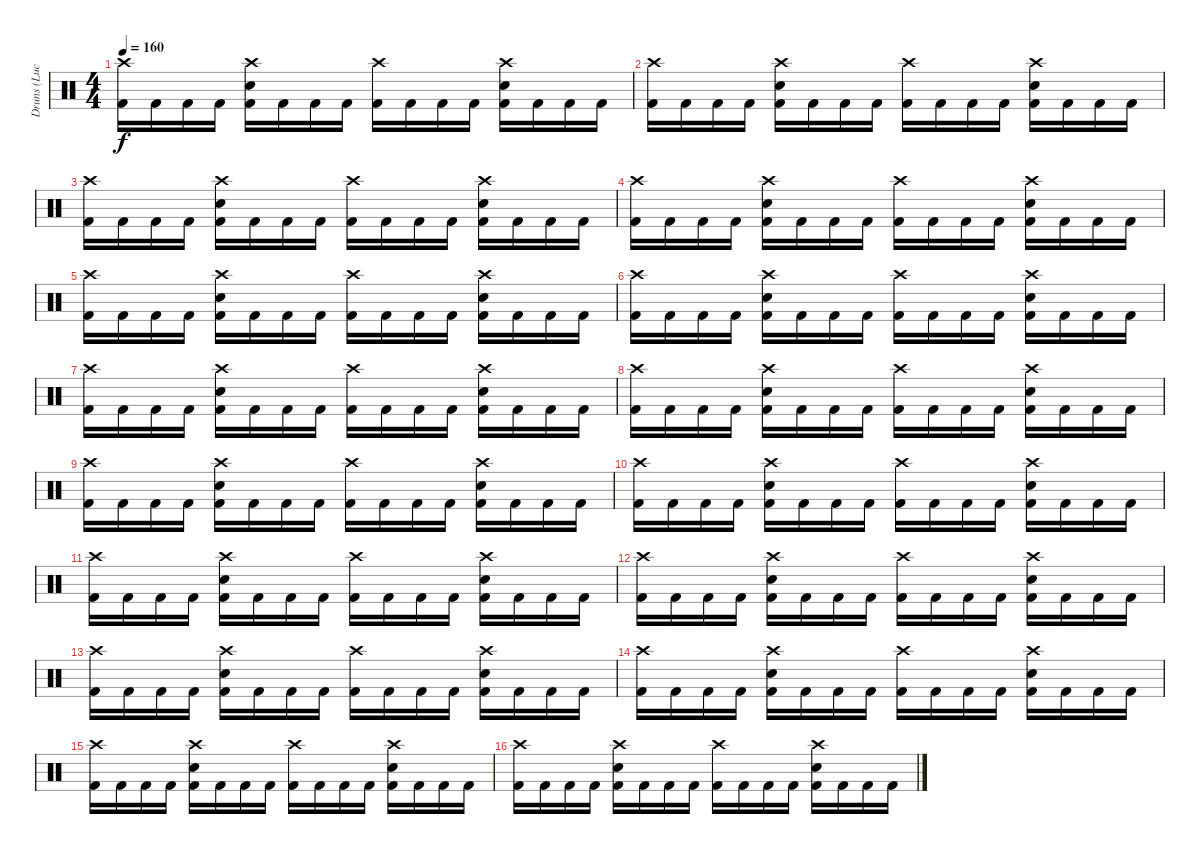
\track ("Druns (Lucas Zigarti)" "Druns (Luc") {instrument percussion}
\staff {score}
\articulation defaults
\ts (4 4)
\tempo 160
\clef neutral
\ks c
("Crash high (hit)" "Kick (hit) 2").16{dy f} "Kick (hit) 2".16 "Kick (hit) 2".16 "Kick (hit) 2".16 ("Electric Snare (hit)" "Crash high (hit)" "Kick (hit) 2").16 "Kick (hit) 2".16 "Kick (hit) 2".16 "Kick (hit) 2".16 ("Crash high (hit)" "Kick (hit) 2").16 "Kick (hit) 2".16 "Kick (hit) 2".16 "Kick (hit) 2".16 ("Electric Snare (hit)" "Crash high (hit)" "Kick (hit) 2").16 "Kick (hit) 2".16 "Kick (hit) 2".16 "Kick (hit) 2".16 |
("Crash high (hit)" "Kick (hit) 2").16 "Kick (hit) 2".16 "Kick (hit) 2".16 "Kick (hit) 2".16 ("Electric Snare (hit)" "Crash high (hit)" "Kick (hit) 2").16 "Kick (hit) 2".16 "Kick (hit) 2".16 "Kick (hit) 2".16 ("Crash high (hit)" "Kick (hit) 2").16 "Kick (hit) 2".16 "Kick (hit) 2".16 "Kick (hit) 2".16 ("Electric Snare (hit)" "Crash high (hit)" "Kick (hit) 2").16 "Kick (hit) 2".16 "Kick (hit) 2".16 "Kick (hit) 2".16 |
("Crash high (hit)" "Kick (hit) 2").16 "Kick (hit) 2".16 "Kick (hit) 2".16 "Kick (hit) 2".16 ("Electric Snare (hit)" "Crash high (hit)" "Kick (hit) 2").16 "Kick (hit) 2".16 "Kick (hit) 2".16 "Kick (hit) 2".16 ("Crash high (hit)" "Kick (hit) 2").16 "Kick (hit) 2".16 "Kick (hit) 2".16 "Kick (hit) 2".16 ("Electric Snare (hit)" "Crash high (hit)" "Kick (hit) 2").16 "Kick (hit) 2".16 "Kick (hit) 2".16 "Kick (hit) 2".16 |
("Crash high (hit)" "Kick (hit) 2").16 "Kick (hit) 2".16 "Kick (hit) 2".16 "Kick (hit) 2".16 ("Electric Snare (hit)" "Crash high (hit)" "Kick (hit) 2").16 "Kick (hit) 2".16 "Kick (hit) 2".16 "Kick (hit) 2".16 ("Crash high (hit)" "Kick (hit) 2").16 "Kick (hit) 2".16 "Kick (hit) 2".16 "Kick (hit) 2".16 ("Electric Snare (hit)" "Crash high (hit)" "Kick (hit) 2").16 "Kick (hit) 2".16 "Kick (hit) 2".16 "Kick (hit) 2".16 |
("Crash high (hit)" "Kick (hit) 2").16 "Kick (hit) 2".16 "Kick (hit) 2".16 "Kick (hit) 2".16 ("Electric Snare (hit)" "Crash high (hit)" "Kick (hit) 2").16 "Kick (hit) 2".16 "Kick (hit) 2".16 "Kick (hit) 2".16 ("Crash high (hit)" "Kick (hit) 2").16 "Kick (hit) 2".16 "Kick (hit) 2".16 "Kick (hit) 2".16 ("Electric Snare (hit)" "Crash high (hit)" "Kick (hit) 2").16 "Kick (hit) 2".16 "Kick (hit) 2".16 "Kick (hit) 2".16 |
("Crash high (hit)" "Kick (hit) 2").16 "Kick (hit) 2".16 "Kick (hit) 2".16 "Kick (hit) 2".16 ("Electric Snare (hit)" "Crash high (hit)" "Kick (hit) 2").16 "Kick (hit) 2".16 "Kick (hit) 2".16 "Kick (hit) 2".16 ("Crash high (hit)" "Kick (hit) 2").16 "Kick (hit) 2".16 "Kick (hit) 2".16 "Kick (hit) 2".16 ("Electric Snare (hit)" "Crash high (hit)" "Kick (hit) 2").16 "Kick (hit) 2".16 "Kick (hit) 2".16 "Kick (hit) 2".16 |
("Crash high (hit)" "Kick (hit) 2").16 "Kick (hit) 2".16 "Kick (hit) 2".16 "Kick (hit) 2".16 ("Electric Snare (hit)" "Crash high (hit)" "Kick (hit) 2").16 "Kick (hit) 2".16 "Kick (hit) 2".16 "Kick (hit) 2".16 ("Crash high (hit)" "Kick (hit) 2").16 "Kick (hit) 2".16 "Kick (hit) 2".16 "Kick (hit) 2".16 ("Electric Snare (hit)" "Crash high (hit)" "Kick (hit) 2").16 "Kick (hit) 2".16 "Kick (hit) 2".16 "Kick (hit) 2".16 |
("Crash high (hit)" "Kick (hit) 2").16 "Kick (hit) 2".16 "Kick (hit) 2".16 "Kick (hit) 2".16 ("Electric Snare (hit)" "Crash high (hit)" "Kick (hit) 2").16 "Kick (hit) 2".16 "Kick (hit) 2".16 "Kick (hit) 2".16 ("Crash high (hit)" "Kick (hit) 2").16 "Kick (hit) 2".16 "Kick (hit) 2".16 "Kick (hit) 2".16 ("Electric Snare (hit)" "Crash high (hit)" "Kick (hit) 2").16 "Kick (hit) 2".16 "Kick (hit) 2".16 "Kick (hit) 2".16 |
("Crash high (hit)" "Kick (hit) 2").16 "Kick (hit) 2".16 "Kick (hit) 2".16 "Kick (hit) 2".16 ("Electric Snare (hit)" "Crash high (hit)" "Kick (hit) 2").16 "Kick (hit) 2".16 "Kick (hit) 2".16 "Kick (hit) 2".16 ("Crash high (hit)" "Kick (hit) 2").16 "Kick (hit) 2".16 "Kick (hit) 2".16 "Kick (hit) 2".16 ("Electric Snare (hit)" "Crash high (hit)" "Kick (hit) 2").16 "Kick (hit) 2".16 "Kick (hit) 2".16 "Kick (hit) 2".16 |
("Crash high (hit)" "Kick (hit) 2").16 "Kick (hit) 2".16 "Kick (hit) 2".16 "Kick (hit) 2".16 ("Electric Snare (hit)" "Crash high (hit)" "Kick (hit) 2").16 "Kick (hit) 2".16 "Kick (hit) 2".16 "Kick (hit) 2".16 ("Crash high (hit)" "Kick (hit) 2").16 "Kick (hit) 2".16 "Kick (hit) 2".16 "Kick (hit) 2".16 ("Electric Snare (hit)" "Crash high (hit)" "Kick (hit) 2").16 "Kick (hit) 2".16 "Kick (hit) 2".16 "Kick (hit) 2".16 |
("Crash high (hit)" "Kick (hit) 2").16 "Kick (hit) 2".16 "Kick (hit) 2".16 "Kick (hit) 2".16 ("Electric Snare (hit)" "Crash high (hit)" "Kick (hit) 2").16 "Kick (hit) 2".16 "Kick (hit) 2".16 "Kick (hit) 2".16 ("Crash high (hit)" "Kick (hit) 2").16 "Kick (hit) 2".16 "Kick (hit) 2".16 "Kick (hit) 2".16 ("Electric Snare (hit)" "Crash high (hit)" "Kick (hit) 2").16 "Kick (hit) 2".16 "Kick (hit) 2".16 "Kick (hit) 2".16 |
("Crash high (hit)" "Kick (hit) 2").16 "Kick (hit) 2".16 "Kick (hit) 2".16 "Kick (hit) 2".16 ("Electric Snare (hit)" "Crash high (hit)" "Kick (hit) 2").16 "Kick (hit) 2".16 "Kick (hit) 2".16 "Kick (hit) 2".16 ("Crash high (hit)" "Kick (hit) 2").16 "Kick (hit) 2".16 "Kick (hit) 2".16 "Kick (hit) 2".16 ("Electric Snare (hit)" "Crash high (hit)" "Kick (hit) 2").16 "Kick (hit) 2".16 "Kick (hit) 2".16 "Kick (hit) 2".16 |
("Crash high (hit)" "Kick (hit) 2").16 "Kick (hit) 2".16 "Kick (hit) 2".16 "Kick (hit) 2".16 ("Electric Snare (hit)" "Crash high (hit)" "Kick (hit) 2").16 "Kick (hit) 2".16 "Kick (hit) 2".16 "Kick (hit) 2".16 ("Crash high (hit)" "Kick (hit) 2").16 "Kick (hit) 2".16 "Kick (hit) 2".16 "Kick (hit) 2".16 ("Electric Snare (hit)" "Crash high (hit)" "Kick (hit) 2").16 "Kick (hit) 2".16 "Kick (hit) 2".16 "Kick (hit) 2".16 |
("Crash high (hit)" "Kick (hit) 2").16 "Kick (hit) 2".16 "Kick (hit) 2".16 "Kick (hit) 2".16 ("Electric Snare (hit)" "Crash high (hit)" "Kick (hit) 2").16 "Kick (hit) 2".16 "Kick (hit) 2".16 "Kick (hit) 2".16 ("Crash high (hit)" "Kick (hit) 2").16 "Kick (hit) 2".16 "Kick (hit) 2".16 "Kick (hit) 2".16 ("Electric Snare (hit)" "Crash high (hit)" "Kick (hit) 2").16 "Kick (hit) 2".16 "Kick (hit) 2".16 "Kick (hit) 2".16 |
("Crash high (hit)" "Kick (hit) 2").16 "Kick (hit) 2".16 "Kick (hit) 2".16 "Kick (hit) 2".16 ("Electric Snare (hit)" "Crash high (hit)" "Kick (hit) 2").16 "Kick (hit) 2".16 "Kick (hit) 2".16 "Kick (hit) 2".16 ("Crash high (hit)" "Kick (hit) 2").16 "Kick (hit) 2".16 "Kick (hit) 2".16 "Kick (hit) 2".16 ("Electric Snare (hit)" "Crash high (hit)" "Kick (hit) 2").16 "Kick (hit) 2".16 "Kick (hit) 2".16 "Kick (hit) 2".16 |
("Crash high (hit)" "Kick (hit) 2").16 "Kick (hit) 2".16 "Kick (hit) 2".16 "Kick (hit) 2".16 ("Electric Snare (hit)" "Crash high (hit)" "Kick (hit) 2").16 "Kick (hit) 2".16 "Kick (hit) 2".16 "Kick (hit) 2".16 ("Crash high (hit)" "Kick (hit) 2").16 "Kick (hit) 2".16 "Kick (hit) 2".16 "Kick (hit) 2".16 ("Electric Snare (hit)" "Crash high (hit)" "Kick (hit) 2").16 "Kick (hit) 2".16 "Kick (hit) 2".16 "Kick (hit) 2".16
